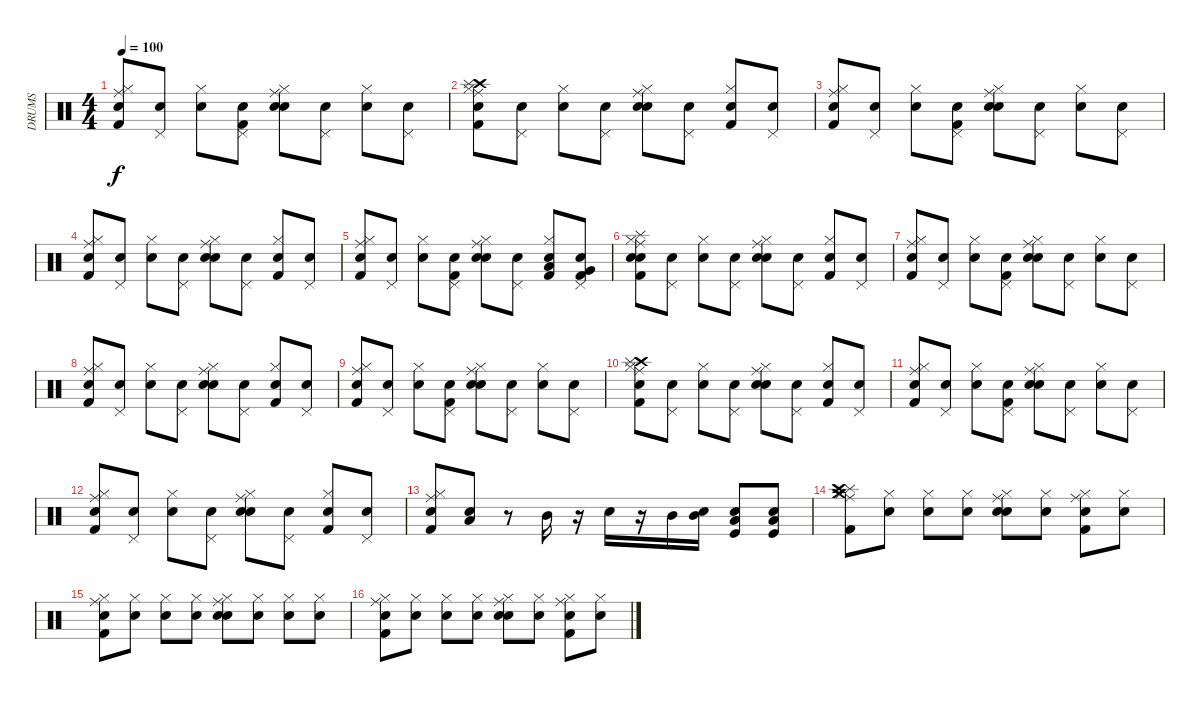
\track ("DRUMS" "DRUMS") {instrument percussion}
\staff {score}
\articulation defaults
\ts (4 4)
\tempo 100
\clef neutral
\ks c
("Snare (hit)" "Ride (middle)" "Hi-Hat (closed)" "Kick (hit) 2").8{dy f} ("Snare (hit)" "Pedal Hi-Hat (hit)").8 ("Snare (hit)" "Hi-Hat (closed)").8 ("Snare (hit)" "Pedal Hi-Hat (hit)" "Kick (hit) 2").8 ("Snare (hit)" "Ride (middle)" "Hi-Hat (closed)" "Snare (hit) 2").8 ("Snare (hit)" "Pedal Hi-Hat (hit)").8 ("Snare (hit)" "Hi-Hat (closed)").8 ("Snare (hit)" "Pedal Hi-Hat (hit)").8 |
("Snare (hit)" "Hi-Hat (closed)" "Ride (middle)" "Kick (hit) 2" "Crash high (hit)" "Splash (hit)").8 ("Snare (hit)" "Pedal Hi-Hat (hit)").8 ("Snare (hit)" "Hi-Hat (closed)").8 ("Snare (hit)" "Pedal Hi-Hat (hit)").8 ("Snare (hit)" "Ride (middle)" "Hi-Hat (closed)" "Snare (hit) 2").8 ("Snare (hit)" "Pedal Hi-Hat (hit)").8 ("Snare (hit)" "Hi-Hat (closed)" "Kick (hit) 2").8 ("Snare (hit)" "Pedal Hi-Hat (hit)").8 |
("Snare (hit)" "Ride (middle)" "Hi-Hat (closed)" "Kick (hit) 2").8 ("Snare (hit)" "Pedal Hi-Hat (hit)").8 ("Snare (hit)" "Hi-Hat (closed)").8 ("Snare (hit)" "Pedal Hi-Hat (hit)" "Kick (hit) 2").8 ("Snare (hit)" "Ride (middle)" "Hi-Hat (closed)" "Snare (hit) 2").8 ("Snare (hit)" "Pedal Hi-Hat (hit)").8 ("Snare (hit)" "Hi-Hat (closed)").8 ("Snare (hit)" "Pedal Hi-Hat (hit)").8 |
("Snare (hit)" "Kick (hit) 2" "Ride (middle)" "Hi-Hat (closed)").8 ("Snare (hit)" "Pedal Hi-Hat (hit)").8 ("Snare (hit)" "Hi-Hat (closed)").8 ("Snare (hit)" "Pedal Hi-Hat (hit)").8 ("Snare (hit)" "Ride (middle)" "Hi-Hat (closed)" "Snare (hit) 2").8 ("Snare (hit)" "Pedal Hi-Hat (hit)").8 ("Snare (hit)" "Hi-Hat (closed)" "Kick (hit) 2").8 ("Snare (hit)" "Pedal Hi-Hat (hit)").8 |
("Snare (hit)" "Ride (middle)" "Hi-Hat (closed)" "Kick (hit) 2").8 ("Snare (hit)" "Pedal Hi-Hat (hit)").8 ("Snare (hit)" "Hi-Hat (closed)").8 ("Snare (hit)" "Pedal Hi-Hat (hit)" "Kick (hit) 2").8 ("Snare (hit)" "Ride (middle)" "Hi-Hat (closed)" "Snare (hit) 2").8 ("Snare (hit)" "Pedal Hi-Hat (hit)").8 ("Snare (hit)" "Kick (hit) 2" "Low Tom (hit)" "Hi-Hat (closed)").8 ("Snare (hit)" "Very Low Tom (hit)" "Kick (hit) 2" "Pedal Hi-Hat (hit)").8 |
("Snare (hit)" "Ride (middle)" "Hi-Hat (closed)" "Kick (hit) 2" "Snare (hit) 2" "Splash (hit)").8 ("Snare (hit)" "Pedal Hi-Hat (hit)").8 ("Snare (hit)" "Hi-Hat (closed)").8 ("Snare (hit)" "Pedal Hi-Hat (hit)").8 ("Snare (hit)" "Ride (middle)" "Hi-Hat (closed)" "Snare (hit) 2").8 ("Snare (hit)" "Pedal Hi-Hat (hit)").8 ("Snare (hit)" "Hi-Hat (closed)" "Kick (hit) 2").8 ("Snare (hit)" "Pedal Hi-Hat (hit)").8 |
("Snare (hit)" "Ride (middle)" "Hi-Hat (closed)" "Kick (hit) 2").8 ("Snare (hit)" "Pedal Hi-Hat (hit)").8 ("Snare (hit)" "Hi-Hat (closed)").8 ("Snare (hit)" "Pedal Hi-Hat (hit)" "Kick (hit) 2").8 ("Snare (hit)" "Ride (middle)" "Hi-Hat (closed)" "Snare (hit) 2").8 ("Snare (hit)" "Pedal Hi-Hat (hit)").8 ("Snare (hit)" "Hi-Hat (closed)").8 ("Snare (hit)" "Pedal Hi-Hat (hit)").8 |
("Snare (hit)" "Kick (hit) 2" "Ride (middle)" "Hi-Hat (closed)").8 ("Snare (hit)" "Pedal Hi-Hat (hit)").8 ("Snare (hit)" "Hi-Hat (closed)").8 ("Snare (hit)" "Pedal Hi-Hat (hit)").8 ("Snare (hit)" "Ride (middle)" "Hi-Hat (closed)" "Snare (hit) 2").8 ("Snare (hit)" "Pedal Hi-Hat (hit)").8 ("Snare (hit)" "Hi-Hat (closed)" "Kick (hit) 2").8 ("Snare (hit)" "Pedal Hi-Hat (hit)").8 |
("Snare (hit)" "Ride (middle)" "Hi-Hat (closed)" "Kick (hit) 2").8 ("Snare (hit)" "Pedal Hi-Hat (hit)").8 ("Snare (hit)" "Hi-Hat (closed)").8 ("Snare (hit)" "Pedal Hi-Hat (hit)" "Kick (hit) 2").8 ("Snare (hit)" "Ride (middle)" "Hi-Hat (closed)" "Snare (hit) 2").8 ("Snare (hit)" "Pedal Hi-Hat (hit)").8 ("Snare (hit)" "Hi-Hat (closed)").8 ("Snare (hit)" "Pedal Hi-Hat (hit)").8 |
("Snare (hit)" "Hi-Hat (closed)" "Ride (middle)" "Kick (hit) 2" "Crash high (hit)" "Splash (hit)").8 ("Snare (hit)" "Pedal Hi-Hat (hit)").8 ("Snare (hit)" "Hi-Hat (closed)").8 ("Snare (hit)" "Pedal Hi-Hat (hit)").8 ("Snare (hit)" "Ride (middle)" "Hi-Hat (closed)" "Snare (hit) 2").8 ("Snare (hit)" "Pedal Hi-Hat (hit)").8 ("Snare (hit)" "Hi-Hat (closed)" "Kick (hit) 2").8 ("Snare (hit)" "Pedal Hi-Hat (hit)").8 |
("Snare (hit)" "Ride (middle)" "Hi-Hat (closed)" "Kick (hit) 2").8 ("Snare (hit)" "Pedal Hi-Hat (hit)").8 ("Snare (hit)" "Hi-Hat (closed)").8 ("Snare (hit)" "Pedal Hi-Hat (hit)" "Kick (hit) 2").8 ("Snare (hit)" "Ride (middle)" "Hi-Hat (closed)" "Snare (hit) 2").8 ("Snare (hit)" "Pedal Hi-Hat (hit)").8 ("Snare (hit)" "Hi-Hat (closed)").8 ("Snare (hit)" "Pedal Hi-Hat (hit)").8 |
("Snare (hit)" "Kick (hit) 2" "Ride (middle)" "Hi-Hat (closed)").8 ("Snare (hit)" "Pedal Hi-Hat (hit)").8 ("Snare (hit)" "Hi-Hat (closed)").8 ("Snare (hit)" "Pedal Hi-Hat (hit)").8 ("Snare (hit)" "Ride (middle)" "Hi-Hat (closed)" "Snare (hit) 2").8 ("Snare (hit)" "Pedal Hi-Hat (hit)").8 ("Snare (hit)" "Hi-Hat (closed)" "Kick (hit) 2").8 ("Snare (hit)" "Pedal Hi-Hat (hit)").8 |
("Snare (hit)" "Ride (middle)" "Hi-Hat (closed)" "Kick (hit) 2").8 ("Snare (hit)" "Low Tom (hit)").8 r.8 "Mid Tom (hit)".16 r.16 "Snare (hit) 2".16 r.16 "Mid Tom (hit)".16 ("Snare (hit)" "Mid Tom (hit)").16 ("Snare (hit)" "Kick (hit)" "Low Tom (hit)").8 ("Snare (hit)" "Kick (hit)" "Low Tom (hit)").8 |
("Ride (middle)" "Hi-Hat (closed)" "Kick (hit) 2" "Crash medium (hit)" "Splash (hit)" "Crash high (hit)").8 ("Snare (hit)" "Hi-Hat (closed)").8 ("Snare (hit)" "Hi-Hat (closed)").8 ("Snare (hit)" "Hi-Hat (closed)").8 ("Snare (hit)" "Ride (middle)" "Hi-Hat (closed)" "Snare (hit) 2").8 ("Snare (hit)" "Hi-Hat (closed)").8 ("Snare (hit)" "Kick (hit) 2" "Ride (middle)" "Hi-Hat (closed)").8 ("Snare (hit)" "Hi-Hat (closed)").8 |
("Snare (hit)" "Kick (hit) 2" "Ride (middle)" "Hi-Hat (closed)").8 ("Snare (hit)" "Hi-Hat (closed)").8 ("Snare (hit)" "Hi-Hat (closed)").8 ("Snare (hit)" "Hi-Hat (closed)").8 ("Snare (hit)" "Snare (hit) 2" "Ride (middle)" "Hi-Hat (closed)").8 ("Snare (hit)" "Hi-Hat (closed)").8 ("Snare (hit)" "Hi-Hat (closed)").8 ("Snare (hit)" "Hi-Hat (closed)").8 |
("Snare (hit)" "Kick (hit) 2" "Ride (middle)" "Hi-Hat (closed)").8 ("Snare (hit)" "Hi-Hat (closed)").8 ("Snare (hit)" "Hi-Hat (closed)").8 ("Snare (hit)" "Hi-Hat (closed)").8 ("Snare (hit)" "Ride (middle)" "Snare (hit) 2" "Hi-Hat (closed)").8 ("Snare (hit)" "Hi-Hat (closed)").8 ("Snare (hit)" "Ride (middle)" "Kick (hit) 2" "Hi-Hat (closed)").8 ("Snare (hit)" "Hi-Hat (closed)").8
